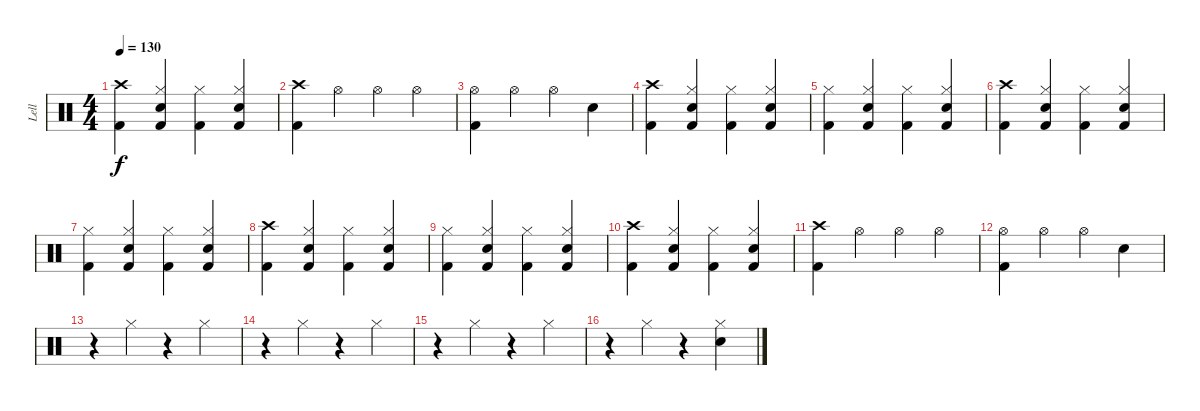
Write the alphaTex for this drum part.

\track ("Lell" "Lell") {instrument percussion}
\staff {score}
\articulation defaults
\ts (4 4)
\tempo 130
\clef neutral
\ks c
("Crash high (hit)" "Kick (hit) 2").4{dy f} ("Hi-Hat (closed)" "Snare (hit) 2" "Kick (hit) 2").4 ("Hi-Hat (closed)" "Kick (hit) 2").4 ("Hi-Hat (closed)" "Snare (hit) 2" "Kick (hit) 2").4 |
("Crash high (hit)" "Kick (hit) 2").4 "Hi-Hat (open)".4 "Hi-Hat (open)".4 "Hi-Hat (open)".4 |
("Hi-Hat (open)" "Kick (hit) 2").4 "Hi-Hat (open)".4 "Hi-Hat (open)".4 "Snare (hit) 2".4 |
("Crash high (hit)" "Kick (hit) 2").4 ("Hi-Hat (closed)" "Snare (hit) 2" "Kick (hit) 2").4 ("Hi-Hat (closed)" "Kick (hit) 2").4 ("Hi-Hat (closed)" "Snare (hit) 2" "Kick (hit) 2").4 |
("Hi-Hat (closed)" "Kick (hit) 2").4 ("Hi-Hat (closed)" "Snare (hit) 2" "Kick (hit) 2").4 ("Hi-Hat (closed)" "Kick (hit) 2").4 ("Hi-Hat (closed)" "Snare (hit) 2" "Kick (hit) 2").4 |
("Crash high (hit)" "Kick (hit) 2").4 ("Hi-Hat (closed)" "Snare (hit) 2" "Kick (hit) 2").4 ("Hi-Hat (closed)" "Kick (hit) 2").4 ("Hi-Hat (closed)" "Snare (hit) 2" "Kick (hit) 2").4 |
("Hi-Hat (closed)" "Kick (hit) 2").4 ("Hi-Hat (closed)" "Snare (hit) 2" "Kick (hit) 2").4 ("Hi-Hat (closed)" "Kick (hit) 2").4 ("Hi-Hat (closed)" "Snare (hit) 2" "Kick (hit) 2").4 |
("Crash high (hit)" "Kick (hit) 2").4 ("Hi-Hat (closed)" "Snare (hit) 2" "Kick (hit) 2").4 ("Hi-Hat (closed)" "Kick (hit) 2").4 ("Hi-Hat (closed)" "Snare (hit) 2" "Kick (hit) 2").4 |
("Hi-Hat (closed)" "Kick (hit) 2").4 ("Hi-Hat (closed)" "Snare (hit) 2" "Kick (hit) 2").4 ("Hi-Hat (closed)" "Kick (hit) 2").4 ("Hi-Hat (closed)" "Snare (hit) 2" "Kick (hit) 2").4 |
("Crash high (hit)" "Kick (hit) 2").4 ("Hi-Hat (closed)" "Snare (hit) 2" "Kick (hit) 2").4 ("Hi-Hat (closed)" "Kick (hit) 2").4 ("Hi-Hat (closed)" "Snare (hit) 2" "Kick (hit) 2").4 |
("Crash high (hit)" "Kick (hit) 2").4 "Hi-Hat (open)".4 "Hi-Hat (open)".4 "Hi-Hat (open)".4 |
("Hi-Hat (open)" "Kick (hit) 2").4 "Hi-Hat (open)".4 "Hi-Hat (open)".4 "Snare (hit) 2".4 |
r.4 "Hi-Hat (closed)".4 r.4 "Hi-Hat (closed)".4 |
r.4 "Hi-Hat (closed)".4 r.4 "Hi-Hat (closed)".4 |
r.4 "Hi-Hat (closed)".4 r.4 "Hi-Hat (closed)".4 |
r.4 "Hi-Hat (closed)".4 r.4 ("Hi-Hat (closed)" "Snare (hit) 2").4
